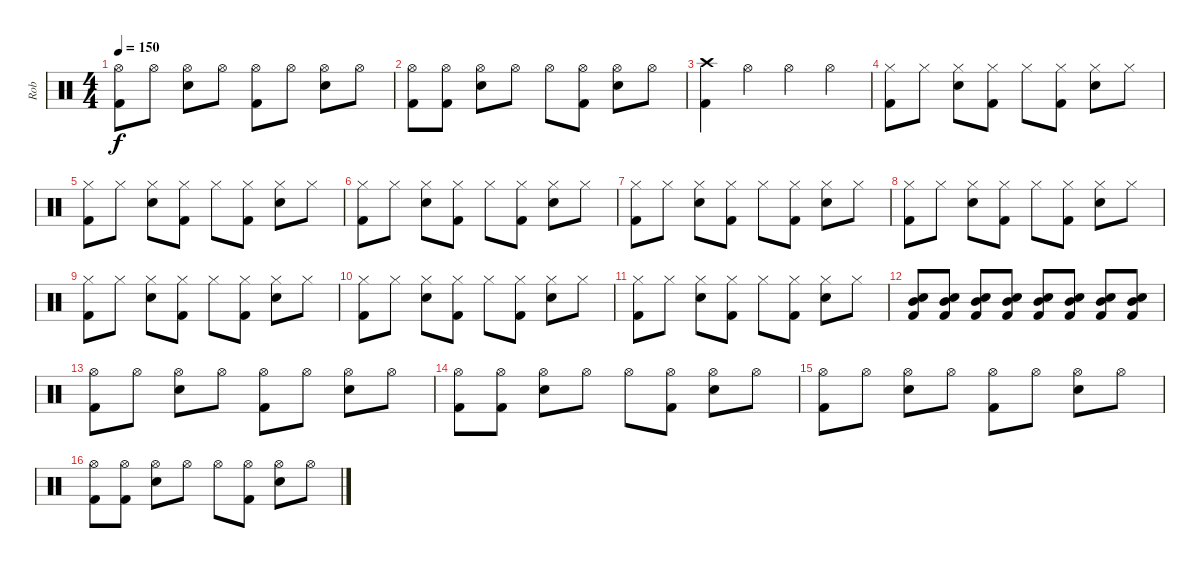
\track ("Rob" "Rob") {instrument percussion}
\staff {score}
\articulation defaults
\ts (4 4)
\tempo 150
\clef neutral
\ks c
("Hi-Hat (open)" "Kick (hit) 2").8{dy f} "Hi-Hat (open)".8 ("Hi-Hat (open)" "Electric Snare (hit)").8 "Hi-Hat (open)".8 ("Hi-Hat (open)" "Kick (hit) 2").8 "Hi-Hat (open)".8 ("Hi-Hat (open)" "Electric Snare (hit)").8 "Hi-Hat (open)".8 |
("Hi-Hat (open)" "Kick (hit) 2").8 ("Hi-Hat (open)" "Kick (hit) 2").8 ("Hi-Hat (open)" "Electric Snare (hit)").8 "Hi-Hat (open)".8 "Hi-Hat (open)".8 ("Hi-Hat (open)" "Kick (hit) 2").8 ("Hi-Hat (open)" "Electric Snare (hit)").8 "Hi-Hat (open)".8 |
("Crash high (hit)" "Kick (hit) 2").4 "Hi-Hat (open)".4 "Hi-Hat (open)".4 "Hi-Hat (open)".4 |
("Hi-Hat (closed)" "Kick (hit) 2").8 "Hi-Hat (closed)".8 ("Hi-Hat (closed)" "Electric Snare (hit)").8 ("Hi-Hat (closed)" "Kick (hit) 2").8 "Hi-Hat (closed)".8 ("Hi-Hat (closed)" "Kick (hit) 2").8 ("Hi-Hat (closed)" "Electric Snare (hit)").8 "Hi-Hat (closed)".8 |
("Hi-Hat (closed)" "Kick (hit) 2").8 "Hi-Hat (closed)".8 ("Hi-Hat (closed)" "Electric Snare (hit)").8 ("Hi-Hat (closed)" "Kick (hit) 2").8 "Hi-Hat (closed)".8 ("Hi-Hat (closed)" "Kick (hit) 2").8 ("Hi-Hat (closed)" "Electric Snare (hit)").8 "Hi-Hat (closed)".8 |
("Hi-Hat (closed)" "Kick (hit) 2").8 "Hi-Hat (closed)".8 ("Hi-Hat (closed)" "Electric Snare (hit)").8 ("Hi-Hat (closed)" "Kick (hit) 2").8 "Hi-Hat (closed)".8 ("Hi-Hat (closed)" "Kick (hit) 2").8 ("Hi-Hat (closed)" "Electric Snare (hit)").8 "Hi-Hat (closed)".8 |
("Hi-Hat (closed)" "Kick (hit) 2").8 "Hi-Hat (closed)".8 ("Hi-Hat (closed)" "Electric Snare (hit)").8 ("Hi-Hat (closed)" "Kick (hit) 2").8 "Hi-Hat (closed)".8 ("Hi-Hat (closed)" "Kick (hit) 2").8 ("Hi-Hat (closed)" "Electric Snare (hit)").8 "Hi-Hat (closed)".8 |
("Hi-Hat (closed)" "Kick (hit) 2").8 "Hi-Hat (closed)".8 ("Hi-Hat (closed)" "Electric Snare (hit)").8 ("Hi-Hat (closed)" "Kick (hit) 2").8 "Hi-Hat (closed)".8 ("Hi-Hat (closed)" "Kick (hit) 2").8 ("Hi-Hat (closed)" "Electric Snare (hit)").8 "Hi-Hat (closed)".8 |
("Hi-Hat (closed)" "Kick (hit) 2").8 "Hi-Hat (closed)".8 ("Hi-Hat (closed)" "Electric Snare (hit)").8 ("Hi-Hat (closed)" "Kick (hit) 2").8 "Hi-Hat (closed)".8 ("Hi-Hat (closed)" "Kick (hit) 2").8 ("Hi-Hat (closed)" "Electric Snare (hit)").8 "Hi-Hat (closed)".8 |
("Hi-Hat (closed)" "Kick (hit) 2").8 "Hi-Hat (closed)".8 ("Hi-Hat (closed)" "Electric Snare (hit)").8 ("Hi-Hat (closed)" "Kick (hit) 2").8 "Hi-Hat (closed)".8 ("Hi-Hat (closed)" "Kick (hit) 2").8 ("Hi-Hat (closed)" "Electric Snare (hit)").8 "Hi-Hat (closed)".8 |
("Hi-Hat (closed)" "Kick (hit) 2").8 "Hi-Hat (closed)".8 ("Hi-Hat (closed)" "Electric Snare (hit)").8 ("Hi-Hat (closed)" "Kick (hit) 2").8 "Hi-Hat (closed)".8 ("Hi-Hat (closed)" "Kick (hit) 2").8 ("Hi-Hat (closed)" "Electric Snare (hit)").8 "Hi-Hat (closed)".8 |
("Mid Tom (hit)" "Electric Snare (hit)" "Kick (hit) 2").8 ("Mid Tom (hit)" "Electric Snare (hit)" "Kick (hit) 2").8 ("Mid Tom (hit)" "Electric Snare (hit)" "Kick (hit) 2").8 ("Mid Tom (hit)" "Electric Snare (hit)" "Kick (hit) 2").8 ("Mid Tom (hit)" "Electric Snare (hit)" "Kick (hit) 2").8 ("Mid Tom (hit)" "Electric Snare (hit)" "Kick (hit) 2").8 ("Mid Tom (hit)" "Electric Snare (hit)" "Kick (hit) 2").8 ("Mid Tom (hit)" "Electric Snare (hit)" "Kick (hit) 2").8 |
("Hi-Hat (open)" "Kick (hit) 2").8 "Hi-Hat (open)".8 ("Hi-Hat (open)" "Electric Snare (hit)").8 "Hi-Hat (open)".8 ("Hi-Hat (open)" "Kick (hit) 2").8 "Hi-Hat (open)".8 ("Hi-Hat (open)" "Electric Snare (hit)").8 "Hi-Hat (open)".8 |
("Hi-Hat (open)" "Kick (hit) 2").8 ("Hi-Hat (open)" "Kick (hit) 2").8 ("Hi-Hat (open)" "Electric Snare (hit)").8 "Hi-Hat (open)".8 "Hi-Hat (open)".8 ("Hi-Hat (open)" "Kick (hit) 2").8 ("Hi-Hat (open)" "Electric Snare (hit)").8 "Hi-Hat (open)".8 |
("Hi-Hat (open)" "Kick (hit) 2").8 "Hi-Hat (open)".8 ("Hi-Hat (open)" "Electric Snare (hit)").8 "Hi-Hat (open)".8 ("Hi-Hat (open)" "Kick (hit) 2").8 "Hi-Hat (open)".8 ("Hi-Hat (open)" "Electric Snare (hit)").8 "Hi-Hat (open)".8 |
("Hi-Hat (open)" "Kick (hit) 2").8 ("Hi-Hat (open)" "Kick (hit) 2").8 ("Hi-Hat (open)" "Electric Snare (hit)").8 "Hi-Hat (open)".8 "Hi-Hat (open)".8 ("Hi-Hat (open)" "Kick (hit) 2").8 ("Hi-Hat (open)" "Electric Snare (hit)").8 "Hi-Hat (open)".8
